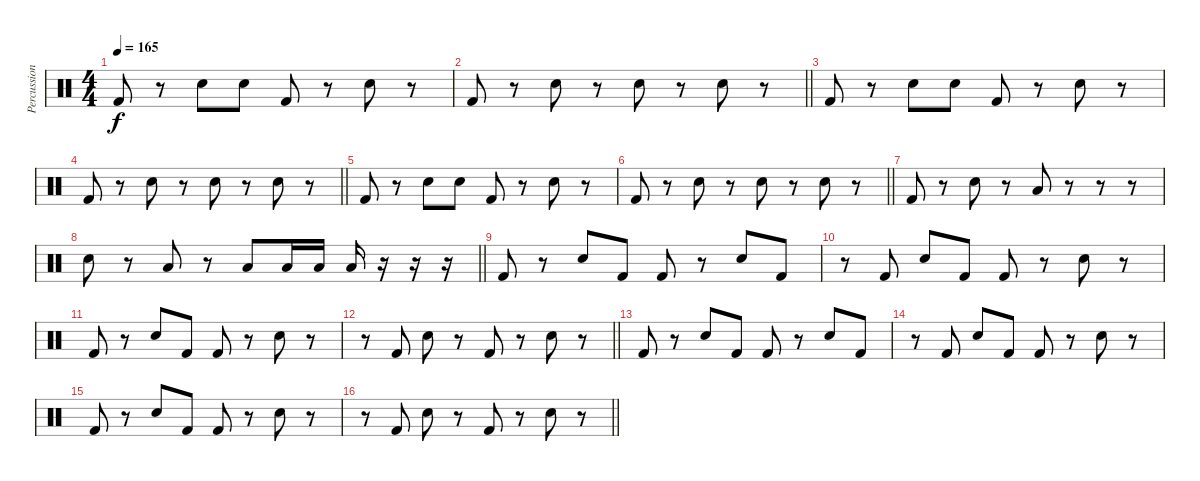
\track ("Percussion" "Percussion") {instrument percussion}
\staff {score}
\articulation defaults
\ts (4 4)
\tempo 165
\clef neutral
\ks c "Kick (hit) 2".8{dy f}
r.8 "Snare (hit) 2".8 "Snare (hit) 2".8 "Kick (hit) 2".8 r.8 "Snare (hit) 2".8 r.8 |
\barLineRight lightlight "Kick (hit) 2".8
r.8 "Snare (hit) 2".8 r.8 "Snare (hit) 2".8 r.8 "Snare (hit) 2".8 r.8 |
"Kick (hit) 2".8 r.8 "Snare (hit) 2".8 "Snare (hit) 2".8 "Kick (hit) 2".8 r.8 "Snare (hit) 2".8 r.8 |
\barLineRight lightlight "Kick (hit) 2".8
r.8 "Snare (hit) 2".8 r.8 "Snare (hit) 2".8 r.8 "Snare (hit) 2".8 r.8 |
"Kick (hit) 2".8 r.8 "Snare (hit) 2".8 "Snare (hit) 2".8 "Kick (hit) 2".8 r.8 "Snare (hit) 2".8 r.8 |
\barLineRight lightlight "Kick (hit) 2".8
r.8 "Snare (hit) 2".8 r.8 "Snare (hit) 2".8 r.8 "Snare (hit) 2".8 r.8 |
"Kick (hit) 2".8 r.8 "Snare (hit) 2".8 r.8 "Low Floor Tom (hit)".8 r.8 r.8 r.8 |
\barLineRight lightlight "Snare (hit) 2".8
r.8 "Low Floor Tom (hit)".8 r.8 "Low Floor Tom (hit)".8 "Low Floor Tom (hit)".16 "Low Floor Tom (hit)".16 "Low Floor Tom (hit)".16 r.16 r.16 r.16 |
"Kick (hit) 2".8 r.8 "Snare (hit) 2".8 "Kick (hit) 2".8 "Kick (hit) 2".8 r.8 "Snare (hit) 2".8 "Kick (hit) 2".8 |
r.8 "Kick (hit) 2".8 "Snare (hit) 2".8 "Kick (hit) 2".8 "Kick (hit) 2".8 r.8 "Snare (hit) 2".8 r.8 |
"Kick (hit) 2".8 r.8 "Snare (hit) 2".8 "Kick (hit) 2".8 "Kick (hit) 2".8 r.8 "Snare (hit) 2".8 r.8 |
\barLineRight lightlight
r.8 "Kick (hit) 2".8 "Snare (hit) 2".8 r.8 "Kick (hit) 2".8 r.8 "Snare (hit) 2".8 r.8 |
"Kick (hit) 2".8 r.8 "Snare (hit) 2".8 "Kick (hit) 2".8 "Kick (hit) 2".8 r.8 "Snare (hit) 2".8 "Kick (hit) 2".8 |
r.8 "Kick (hit) 2".8 "Snare (hit) 2".8 "Kick (hit) 2".8 "Kick (hit) 2".8 r.8 "Snare (hit) 2".8 r.8 |
"Kick (hit) 2".8 r.8 "Snare (hit) 2".8 "Kick (hit) 2".8 "Kick (hit) 2".8 r.8 "Snare (hit) 2".8 r.8 |
\barLineRight lightlight
r.8 "Kick (hit) 2".8 "Snare (hit) 2".8 r.8 "Kick (hit) 2".8 r.8 "Snare (hit) 2".8 r.8
